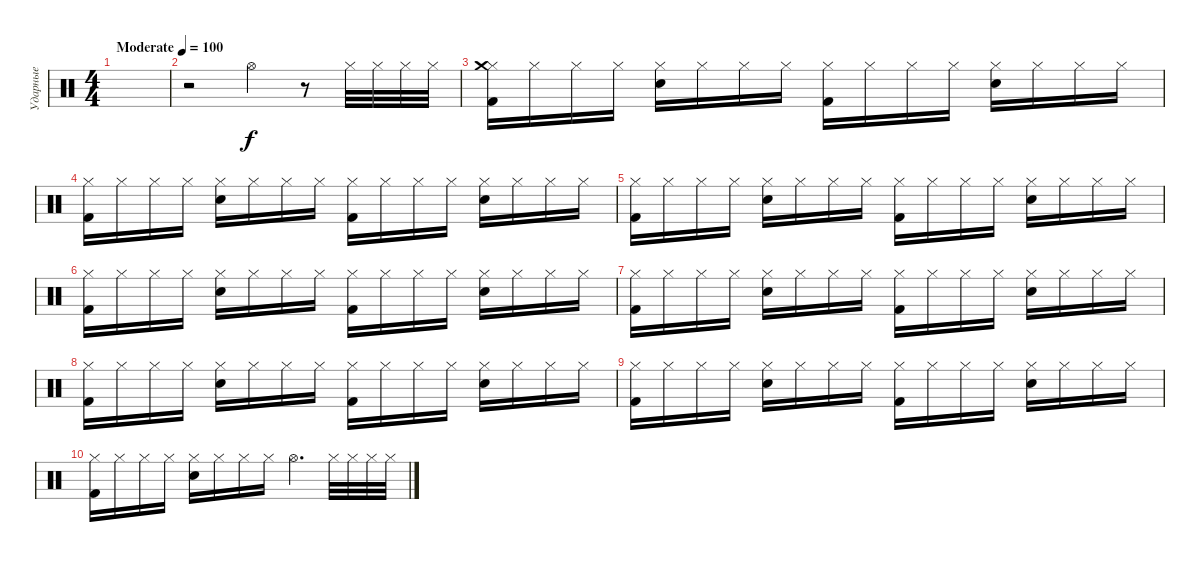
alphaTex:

\track ("Ударные" "Ударные") {instrument percussion}
\staff {score}
\articulation defaults
\ts (4 4)
\tempo (100 "Moderate")
\clef neutral
\ks c
|
r.2 "Hi-Hat (open)".4 r.8 "Hi-Hat (closed)".32 "Hi-Hat (closed)".32 "Hi-Hat (closed)".32 "Hi-Hat (closed)".32 |
("Hi-Hat (closed)" "Kick (hit) 2" "Crash medium (hit)").16 "Hi-Hat (closed)".16 "Hi-Hat (closed)".16 "Hi-Hat (closed)".16 ("Hi-Hat (closed)" "Snare (hit) 2").16 "Hi-Hat (closed)".16 "Hi-Hat (closed)".16 "Hi-Hat (closed)".16 ("Hi-Hat (closed)" "Kick (hit) 2").16 "Hi-Hat (closed)".16 "Hi-Hat (closed)".16 "Hi-Hat (closed)".16 ("Hi-Hat (closed)" "Snare (hit) 2").16 "Hi-Hat (closed)".16 "Hi-Hat (closed)".16 "Hi-Hat (closed)".16 |
("Hi-Hat (closed)" "Kick (hit) 2").16 "Hi-Hat (closed)".16 "Hi-Hat (closed)".16 "Hi-Hat (closed)".16 ("Hi-Hat (closed)" "Snare (hit) 2").16 "Hi-Hat (closed)".16 "Hi-Hat (closed)".16 "Hi-Hat (closed)".16 ("Hi-Hat (closed)" "Kick (hit) 2").16 "Hi-Hat (closed)".16 "Hi-Hat (closed)".16 "Hi-Hat (closed)".16 ("Hi-Hat (closed)" "Snare (hit) 2").16 "Hi-Hat (closed)".16 "Hi-Hat (closed)".16 "Hi-Hat (closed)".16 |
("Hi-Hat (closed)" "Kick (hit) 2").16 "Hi-Hat (closed)".16 "Hi-Hat (closed)".16 "Hi-Hat (closed)".16 ("Hi-Hat (closed)" "Snare (hit) 2").16 "Hi-Hat (closed)".16 "Hi-Hat (closed)".16 "Hi-Hat (closed)".16 ("Hi-Hat (closed)" "Kick (hit) 2").16 "Hi-Hat (closed)".16 "Hi-Hat (closed)".16 "Hi-Hat (closed)".16 ("Hi-Hat (closed)" "Snare (hit) 2").16 "Hi-Hat (closed)".16 "Hi-Hat (closed)".16 "Hi-Hat (closed)".16 |
("Hi-Hat (closed)" "Kick (hit) 2").16 "Hi-Hat (closed)".16 "Hi-Hat (closed)".16 "Hi-Hat (closed)".16 ("Hi-Hat (closed)" "Snare (hit) 2").16 "Hi-Hat (closed)".16 "Hi-Hat (closed)".16 "Hi-Hat (closed)".16 ("Hi-Hat (closed)" "Kick (hit) 2").16 "Hi-Hat (closed)".16 "Hi-Hat (closed)".16 "Hi-Hat (closed)".16 ("Hi-Hat (closed)" "Snare (hit) 2").16 "Hi-Hat (closed)".16 "Hi-Hat (closed)".16 "Hi-Hat (closed)".16 |
("Hi-Hat (closed)" "Kick (hit) 2").16 "Hi-Hat (closed)".16 "Hi-Hat (closed)".16 "Hi-Hat (closed)".16 ("Hi-Hat (closed)" "Snare (hit) 2").16 "Hi-Hat (closed)".16 "Hi-Hat (closed)".16 "Hi-Hat (closed)".16 ("Hi-Hat (closed)" "Kick (hit) 2").16 "Hi-Hat (closed)".16 "Hi-Hat (closed)".16 "Hi-Hat (closed)".16 ("Hi-Hat (closed)" "Snare (hit) 2").16 "Hi-Hat (closed)".16 "Hi-Hat (closed)".16 "Hi-Hat (closed)".16 |
("Hi-Hat (closed)" "Kick (hit) 2").16 "Hi-Hat (closed)".16 "Hi-Hat (closed)".16 "Hi-Hat (closed)".16 ("Hi-Hat (closed)" "Snare (hit) 2").16 "Hi-Hat (closed)".16 "Hi-Hat (closed)".16 "Hi-Hat (closed)".16 ("Hi-Hat (closed)" "Kick (hit) 2").16 "Hi-Hat (closed)".16 "Hi-Hat (closed)".16 "Hi-Hat (closed)".16 ("Hi-Hat (closed)" "Snare (hit) 2").16 "Hi-Hat (closed)".16 "Hi-Hat (closed)".16 "Hi-Hat (closed)".16 |
("Hi-Hat (closed)" "Kick (hit) 2").16 "Hi-Hat (closed)".16 "Hi-Hat (closed)".16 "Hi-Hat (closed)".16 ("Hi-Hat (closed)" "Snare (hit) 2").16 "Hi-Hat (closed)".16 "Hi-Hat (closed)".16 "Hi-Hat (closed)".16 ("Hi-Hat (closed)" "Kick (hit) 2").16 "Hi-Hat (closed)".16 "Hi-Hat (closed)".16 "Hi-Hat (closed)".16 ("Hi-Hat (closed)" "Snare (hit) 2").16 "Hi-Hat (closed)".16 "Hi-Hat (closed)".16 "Hi-Hat (closed)".16 |
("Hi-Hat (closed)" "Kick (hit) 2").16 "Hi-Hat (closed)".16 "Hi-Hat (closed)".16 "Hi-Hat (closed)".16 ("Hi-Hat (closed)" "Snare (hit) 2").16 "Hi-Hat (closed)".16 "Hi-Hat (closed)".16 "Hi-Hat (closed)".16 "Hi-Hat (open)".4{d} "Hi-Hat (closed)".32 "Hi-Hat (closed)".32 "Hi-Hat (closed)".32 "Hi-Hat (closed)".32
